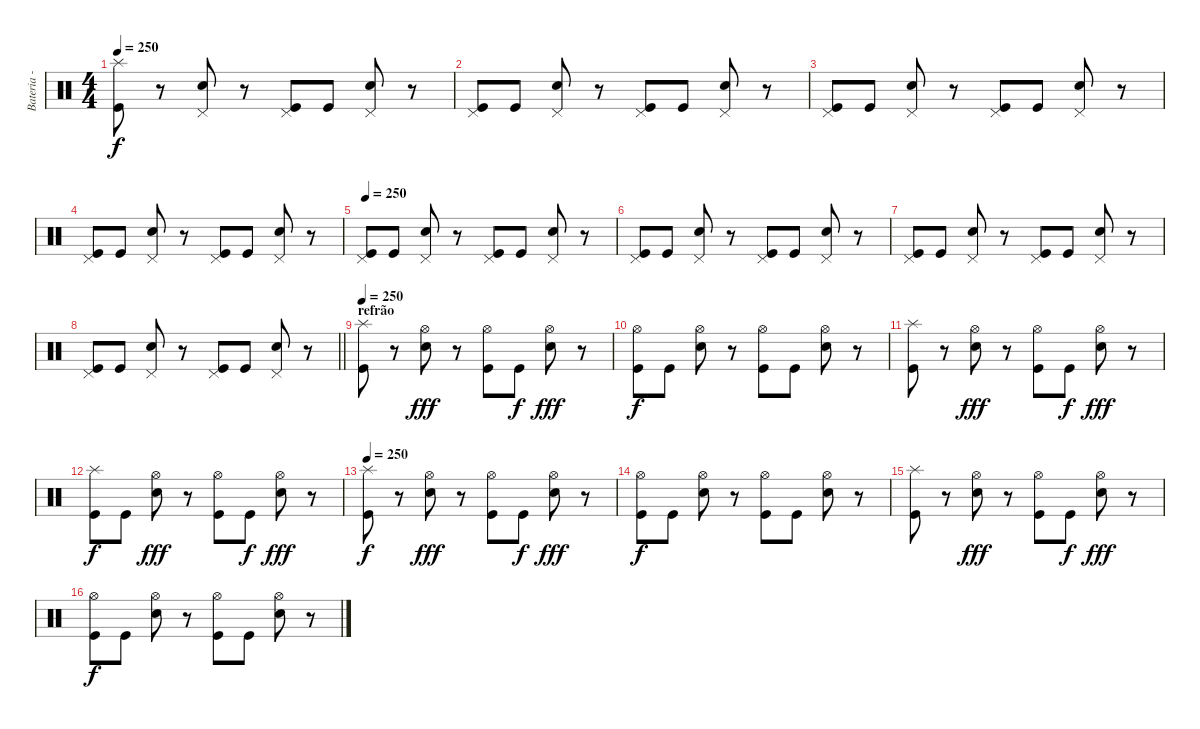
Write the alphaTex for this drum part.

\track ("Bateria - Japinha" "Bateria - ") {instrument percussion}
\staff {score}
\articulation defaults
\ts (4 4)
\tempo 250
\clef neutral
\ks c
("Kick (hit)" "Splash (hit)").8{dy f} r.8 ("Snare (hit) 2" "Pedal Hi-Hat (hit)").8 r.8 ("Kick (hit)" "Pedal Hi-Hat (hit)").8 "Kick (hit)".8 ("Snare (hit) 2" "Pedal Hi-Hat (hit)").8 r.8 |
("Kick (hit)" "Pedal Hi-Hat (hit)").8 "Kick (hit)".8 ("Snare (hit) 2" "Pedal Hi-Hat (hit)").8 r.8 ("Kick (hit)" "Pedal Hi-Hat (hit)").8 "Kick (hit)".8 ("Snare (hit) 2" "Pedal Hi-Hat (hit)").8 r.8 |
("Kick (hit)" "Pedal Hi-Hat (hit)").8 "Kick (hit)".8 ("Snare (hit) 2" "Pedal Hi-Hat (hit)").8 r.8 ("Kick (hit)" "Pedal Hi-Hat (hit)").8 "Kick (hit)".8 ("Snare (hit) 2" "Pedal Hi-Hat (hit)").8 r.8 |
("Kick (hit)" "Pedal Hi-Hat (hit)").8 "Kick (hit)".8 ("Snare (hit) 2" "Pedal Hi-Hat (hit)").8 r.8 ("Kick (hit)" "Pedal Hi-Hat (hit)").8 "Kick (hit)".8 ("Snare (hit) 2" "Pedal Hi-Hat (hit)").8 r.8 |
\tempo 250
("Kick (hit)" "Pedal Hi-Hat (hit)").8 "Kick (hit)".8 ("Snare (hit) 2" "Pedal Hi-Hat (hit)").8 r.8 ("Kick (hit)" "Pedal Hi-Hat (hit)").8 "Kick (hit)".8 ("Snare (hit) 2" "Pedal Hi-Hat (hit)").8 r.8 |
("Kick (hit)" "Pedal Hi-Hat (hit)").8 "Kick (hit)".8 ("Snare (hit) 2" "Pedal Hi-Hat (hit)").8 r.8 ("Kick (hit)" "Pedal Hi-Hat (hit)").8 "Kick (hit)".8 ("Snare (hit) 2" "Pedal Hi-Hat (hit)").8 r.8 |
("Kick (hit)" "Pedal Hi-Hat (hit)").8 "Kick (hit)".8 ("Snare (hit) 2" "Pedal Hi-Hat (hit)").8 r.8 ("Kick (hit)" "Pedal Hi-Hat (hit)").8 "Kick (hit)".8 ("Snare (hit) 2" "Pedal Hi-Hat (hit)").8 r.8 |
\barLineRight lightlight
("Kick (hit)" "Pedal Hi-Hat (hit)").8 "Kick (hit)".8 ("Snare (hit) 2" "Pedal Hi-Hat (hit)").8 r.8 ("Kick (hit)" "Pedal Hi-Hat (hit)").8 "Kick (hit)".8 ("Snare (hit) 2" "Pedal Hi-Hat (hit)").8 r.8 |
\section ("" "refrão")
\tempo 250
("Kick (hit)" "Splash (hit)").8 r.8 ("Snare (hit) 2" "Hi-Hat (open)").8{dy fff} r.8 ("Kick (hit)" "Hi-Hat (open)").8 "Kick (hit)".8{dy f} ("Snare (hit) 2" "Hi-Hat (open)").8{dy fff} r.8 |
("Kick (hit)" "Hi-Hat (open)").8{dy f} "Kick (hit)".8 ("Snare (hit) 2" "Hi-Hat (open)").8 r.8 ("Kick (hit)" "Hi-Hat (open)").8 "Kick (hit)".8 ("Snare (hit) 2" "Hi-Hat (open)").8 r.8 |
("Kick (hit)" "Splash (hit)").8 r.8 ("Snare (hit) 2" "Hi-Hat (open)").8{dy fff} r.8 ("Kick (hit)" "Hi-Hat (open)").8 "Kick (hit)".8{dy f} ("Snare (hit) 2" "Hi-Hat (open)").8{dy fff} r.8 |
("Kick (hit)" "Splash (hit)").8{dy f} "Kick (hit)".8 ("Snare (hit) 2" "Hi-Hat (open)").8{dy fff} r.8 ("Kick (hit)" "Hi-Hat (open)").8 "Kick (hit)".8{dy f} ("Snare (hit) 2" "Hi-Hat (open)").8{dy fff} r.8 |
\tempo 250
("Kick (hit)" "Splash (hit)").8{dy f} r.8 ("Snare (hit) 2" "Hi-Hat (open)").8{dy fff} r.8 ("Kick (hit)" "Hi-Hat (open)").8 "Kick (hit)".8{dy f} ("Snare (hit) 2" "Hi-Hat (open)").8{dy fff} r.8 |
("Kick (hit)" "Hi-Hat (open)").8{dy f} "Kick (hit)".8 ("Snare (hit) 2" "Hi-Hat (open)").8 r.8 ("Kick (hit)" "Hi-Hat (open)").8 "Kick (hit)".8 ("Snare (hit) 2" "Hi-Hat (open)").8 r.8 |
("Kick (hit)" "Splash (hit)").8 r.8 ("Snare (hit) 2" "Hi-Hat (open)").8{dy fff} r.8 ("Kick (hit)" "Hi-Hat (open)").8 "Kick (hit)".8{dy f} ("Snare (hit) 2" "Hi-Hat (open)").8{dy fff} r.8 |
("Kick (hit)" "Hi-Hat (open)").8{dy f} "Kick (hit)".8 ("Snare (hit) 2" "Hi-Hat (open)").8 r.8 ("Kick (hit)" "Hi-Hat (open)").8 "Kick (hit)".8 ("Snare (hit) 2" "Hi-Hat (open)").8 r.8
